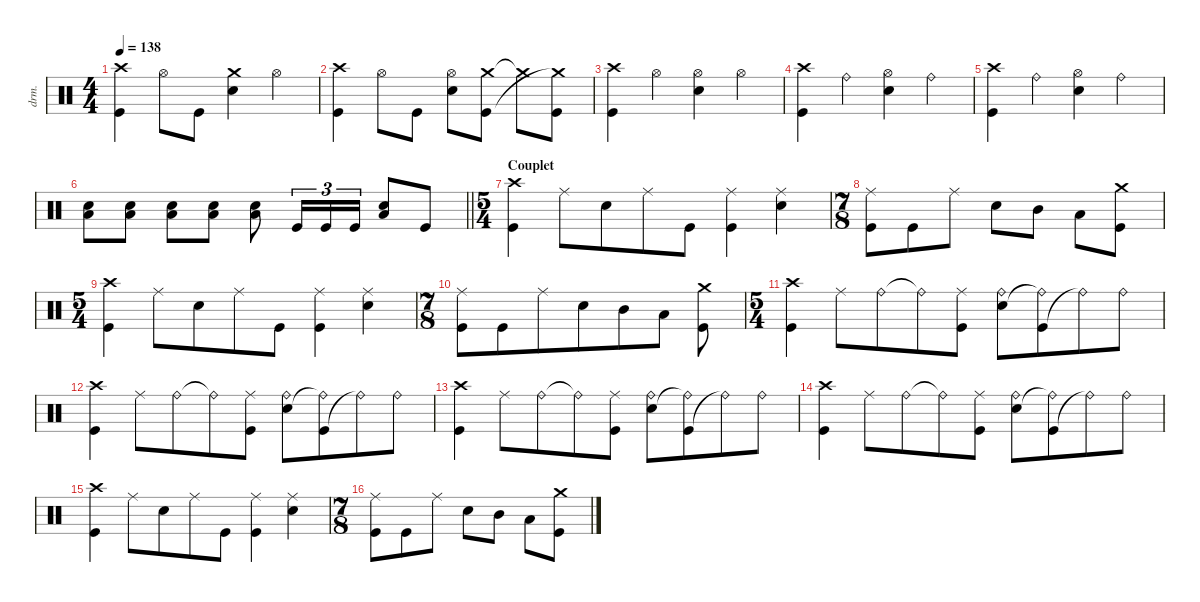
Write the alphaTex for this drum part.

\defaultSystemsLayout 4
\hideDynamics
\bracketExtendMode nobrackets
\track ("Percussions" "drm.") {instrument percussion}
\staff {score}
\articulation defaults
\ts (4 4)
\tempo 138
\clef neutral
\ks aminor
("Kick (hit)" "Crash high (hit)").4{dy f} "Hi-Hat (open)".8 "Kick (hit)".8 ("Crash medium (hit)" "Snare (hit) 2").4 "Hi-Hat (open)".4 |
("Kick (hit)" "Crash high (hit)").4 "Hi-Hat (open)".8 "Kick (hit)".8 ("Hi-Hat (open)" "Snare (hit) 2").8 ("Crash medium (hit)" "Kick (hit)").8 "Crash medium (hit)"{t}.8 ("Kick (hit)" "Crash medium (hit)"{t}).8 |
("Kick (hit)" "Crash high (hit)").4 "Hi-Hat (open)".4 ("Hi-Hat (open)" "Snare (hit) 2").4 "Hi-Hat (open)".4 |
("Kick (hit)" "Crash high (hit)").4 "Ride (bell)".4 ("Hi-Hat (open)" "Snare (hit) 2").4 "Ride (bell)".4 |
("Kick (hit)" "Crash high (hit)").4 "Ride (bell)".4 ("Hi-Hat (open)" "Snare (hit) 2").4 "Ride (bell)".4 |
\barLineRight lightlight
("Snare (hit) 2" "Low Tom (hit)").8 ("Snare (hit) 2" "Low Tom (hit)").8 ("Snare (hit) 2" "Low Tom (hit)").8 ("Snare (hit) 2" "Low Tom (hit)").8 ("Snare (hit) 2" "Low Tom (hit)").8 "Kick (hit)".16{tu (3 2)} "Kick (hit)".16{tu (3 2)} "Kick (hit)".16{tu (3 2)} ("Snare (hit) 2" "Low Tom (hit)").8 "Kick (hit)".8 |
\ts (5 4)
\beaming (8 6 4)
\section ("" "Couplet")
("Crash high (hit)" "Kick (hit)").4 "Ride (middle)".8 "Snare (hit) 2".8 "Ride (middle)".8 "Kick (hit)".8 ("Ride (middle)" "Kick (hit)").4 ("Ride (middle)" "Snare (hit) 2").4 |
\ts (7 8)
\beaming (8 3 2 2)
("Ride (middle)" "Kick (hit)").8 "Kick (hit)".8 "Ride (middle)".8 "Snare (hit) 2".8 "Mid Tom (hit)".8 "Low Tom (hit)".8 ("Kick (hit)" "Crash medium (hit)").8 |
\ts (5 4)
\beaming (8 6 4)
("Crash high (hit)" "Kick (hit)").4 "Ride (middle)".8 "Snare (hit) 2".8 "Ride (middle)".8 "Kick (hit)".8 ("Ride (middle)" "Kick (hit)").4 ("Ride (middle)" "Snare (hit) 2").4 |
\ts (7 8)
\beaming (8 6 4)
("Ride (middle)" "Kick (hit)").8 "Kick (hit)".8 "Ride (middle)".8 "Snare (hit) 2".8 "Mid Tom (hit)".8 "Low Tom (hit)".8 ("Kick (hit)" "Crash medium (hit)").8 |
\ts (5 4)
\beaming (8 6 4)
("Crash high (hit)" "Kick (hit)").4 "Ride (middle)".8 "Ride (bell)".8 "Ride (bell)"{t}.8 ("Ride (middle)" "Kick (hit)").8 ("Ride (bell)" "Snare (hit) 2").8 ("Kick (hit)" "Ride (bell)"{t}).8 "Ride (bell)"{t}.8 "Ride (bell)".8 |
("Crash high (hit)" "Kick (hit)").4 "Ride (middle)".8 "Ride (bell)".8 "Ride (bell)"{t}.8 ("Ride (middle)" "Kick (hit)").8 ("Ride (bell)" "Snare (hit) 2").8 ("Kick (hit)" "Ride (bell)"{t}).8 "Ride (bell)"{t}.8 "Ride (bell)".8 |
("Crash high (hit)" "Kick (hit)").4 "Ride (middle)".8 "Ride (bell)".8 "Ride (bell)"{t}.8 ("Ride (middle)" "Kick (hit)").8 ("Ride (bell)" "Snare (hit) 2").8 ("Kick (hit)" "Ride (bell)"{t}).8 "Ride (bell)"{t}.8 "Ride (bell)".8 |
("Crash high (hit)" "Kick (hit)").4 "Ride (middle)".8 "Ride (bell)".8 "Ride (bell)"{t}.8 ("Ride (middle)" "Kick (hit)").8 ("Ride (bell)" "Snare (hit) 2").8 ("Kick (hit)" "Ride (bell)"{t}).8 "Ride (bell)"{t}.8 "Ride (bell)".8 |
("Crash high (hit)" "Kick (hit)").4 "Ride (middle)".8 "Snare (hit) 2".8 "Ride (middle)".8 "Kick (hit)".8 ("Ride (middle)" "Kick (hit)").4 ("Ride (middle)" "Snare (hit) 2").4 |
\ts (7 8)
\beaming (8 3 2 2)
("Ride (middle)" "Kick (hit)").8 "Kick (hit)".8 "Ride (middle)".8 "Snare (hit) 2".8 "Mid Tom (hit)".8 "Low Tom (hit)".8 ("Kick (hit)" "Crash medium (hit)").8
